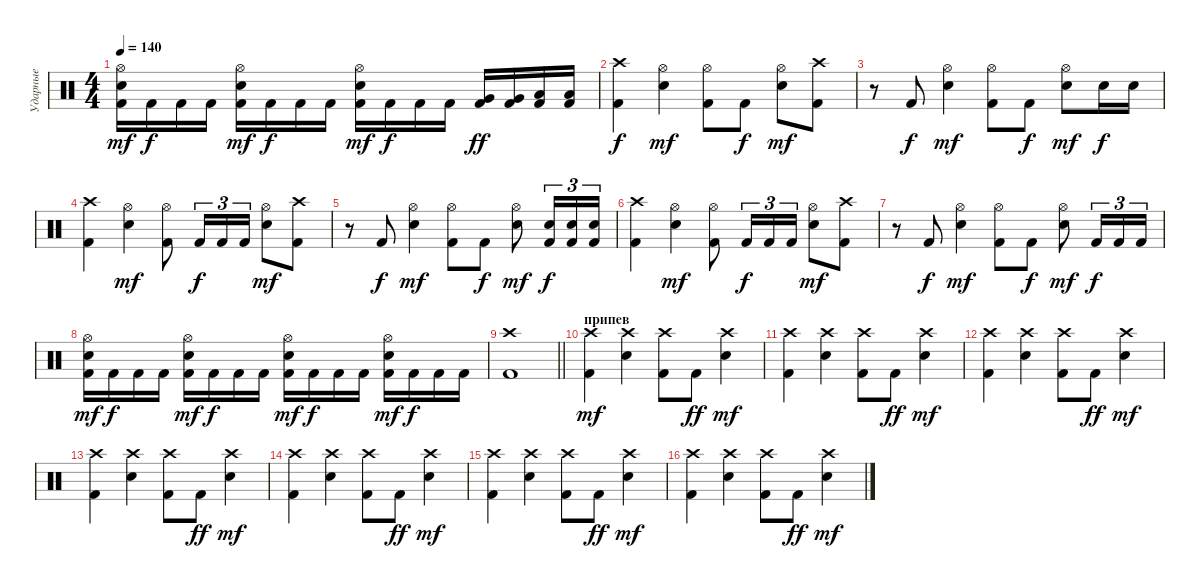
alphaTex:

\track ("Ударные" "Ударные") {instrument percussion}
\staff {score}
\articulation defaults
\ts (4 4)
\tempo 140
\clef neutral
\ks c
("Kick (hit) 2" "Snare (hit) 2" "Hi-Hat (open)").16{dy mf} "Kick (hit) 2".16{dy f} "Kick (hit) 2".16 "Kick (hit) 2".16 ("Kick (hit) 2" "Snare (hit) 2" "Hi-Hat (open)").16{dy mf} "Kick (hit) 2".16{dy f} "Kick (hit) 2".16 "Kick (hit) 2".16 ("Kick (hit) 2" "Snare (hit) 2" "Hi-Hat (open)").16{dy mf} "Kick (hit) 2".16{dy f} "Kick (hit) 2".16 "Kick (hit) 2".16 ("Kick (hit) 2" "Very Low Tom (hit)").16{dy ff} ("Kick (hit) 2" "Very Low Tom (hit)").16 ("Kick (hit) 2" "Low Floor Tom (hit)").16 ("Kick (hit) 2" "Low Floor Tom (hit)").16 |
("Kick (hit) 2" "Crash high (hit)").4{dy f} ("Snare (hit) 2" "Hi-Hat (open)").4{dy mf} ("Kick (hit) 2" "Hi-Hat (open)").8 "Kick (hit) 2".8{dy f} ("Snare (hit) 2" "Hi-Hat (open)").8{dy mf} ("Kick (hit) 2" "Crash high (hit)").8 |
r.8 "Kick (hit) 2".8{dy f} ("Snare (hit) 2" "Hi-Hat (open)").4{dy mf} ("Kick (hit) 2" "Hi-Hat (open)").8 "Kick (hit) 2".8{dy f} ("Snare (hit) 2" "Hi-Hat (open)").8{dy mf} "Snare (hit) 2".16{dy f} "Snare (hit) 2".16 |
("Kick (hit) 2" "Crash high (hit)").4 ("Snare (hit) 2" "Hi-Hat (open)").4{dy mf} ("Kick (hit) 2" "Hi-Hat (open)").8 "Kick (hit) 2".16{tu (3 2) dy f} "Kick (hit) 2".16{tu (3 2)} "Kick (hit) 2".16{tu (3 2)} ("Snare (hit) 2" "Hi-Hat (open)").8{dy mf} ("Kick (hit) 2" "Crash high (hit)").8 |
r.8 "Kick (hit) 2".8{dy f} ("Snare (hit) 2" "Hi-Hat (open)").4{dy mf} ("Kick (hit) 2" "Hi-Hat (open)").8 "Kick (hit) 2".8{dy f} ("Snare (hit) 2" "Hi-Hat (open)").8{dy mf} ("Kick (hit) 2" "Snare (hit) 2").16{tu (3 2) dy f} ("Kick (hit) 2" "Snare (hit) 2").16{tu (3 2)} ("Kick (hit) 2" "Snare (hit) 2").16{tu (3 2)} |
("Kick (hit) 2" "Crash high (hit)").4 ("Snare (hit) 2" "Hi-Hat (open)").4{dy mf} ("Kick (hit) 2" "Hi-Hat (open)").8 "Kick (hit) 2".16{tu (3 2) dy f} "Kick (hit) 2".16{tu (3 2)} "Kick (hit) 2".16{tu (3 2)} ("Snare (hit) 2" "Hi-Hat (open)").8{dy mf} ("Kick (hit) 2" "Crash high (hit)").8 |
r.8 "Kick (hit) 2".8{dy f} ("Snare (hit) 2" "Hi-Hat (open)").4{dy mf} ("Kick (hit) 2" "Hi-Hat (open)").8 "Kick (hit) 2".8{dy f} ("Snare (hit) 2" "Hi-Hat (open)").8{dy mf} "Kick (hit) 2".16{tu (3 2) dy f} "Kick (hit) 2".16{tu (3 2)} "Kick (hit) 2".16{tu (3 2)} |
("Kick (hit) 2" "Snare (hit) 2" "Hi-Hat (open)").16{dy mf} "Kick (hit) 2".16{dy f} "Kick (hit) 2".16 "Kick (hit) 2".16 ("Kick (hit) 2" "Snare (hit) 2" "Hi-Hat (open)").16{dy mf} "Kick (hit) 2".16{dy f} "Kick (hit) 2".16 "Kick (hit) 2".16 ("Kick (hit) 2" "Snare (hit) 2" "Hi-Hat (open)").16{dy mf} "Kick (hit) 2".16{dy f} "Kick (hit) 2".16 "Kick (hit) 2".16 ("Kick (hit) 2" "Snare (hit) 2" "Hi-Hat (open)").16{dy mf} "Kick (hit) 2".16{dy f} "Kick (hit) 2".16 "Kick (hit) 2".16 |
\barLineRight lightlight
("Kick (hit) 2" "Crash high (hit)").1 |
\section ("" "припев")
("Kick (hit) 2" "Crash high (hit)").4{dy mf} ("Snare (hit) 2" "Crash high (hit)").4 ("Kick (hit) 2" "Crash high (hit)").8 "Kick (hit) 2".8{dy ff} ("Snare (hit) 2" "Crash high (hit)").4{dy mf} |
("Kick (hit) 2" "Crash high (hit)").4 ("Snare (hit) 2" "Crash high (hit)").4 ("Kick (hit) 2" "Crash high (hit)").8 "Kick (hit) 2".8{dy ff} ("Snare (hit) 2" "Crash high (hit)").4{dy mf} |
("Kick (hit) 2" "Crash high (hit)").4 ("Snare (hit) 2" "Crash high (hit)").4 ("Kick (hit) 2" "Crash high (hit)").8 "Kick (hit) 2".8{dy ff} ("Snare (hit) 2" "Crash high (hit)").4{dy mf} |
("Kick (hit) 2" "Crash high (hit)").4 ("Snare (hit) 2" "Crash high (hit)").4 ("Kick (hit) 2" "Crash high (hit)").8 "Kick (hit) 2".8{dy ff} ("Snare (hit) 2" "Crash high (hit)").4{dy mf} |
("Kick (hit) 2" "Crash high (hit)").4 ("Snare (hit) 2" "Crash high (hit)").4 ("Kick (hit) 2" "Crash high (hit)").8 "Kick (hit) 2".8{dy ff} ("Snare (hit) 2" "Crash high (hit)").4{dy mf} |
("Kick (hit) 2" "Crash high (hit)").4 ("Snare (hit) 2" "Crash high (hit)").4 ("Kick (hit) 2" "Crash high (hit)").8 "Kick (hit) 2".8{dy ff} ("Snare (hit) 2" "Crash high (hit)").4{dy mf} |
("Kick (hit) 2" "Crash high (hit)").4 ("Snare (hit) 2" "Crash high (hit)").4 ("Kick (hit) 2" "Crash high (hit)").8 "Kick (hit) 2".8{dy ff} ("Snare (hit) 2" "Crash high (hit)").4{dy mf}
